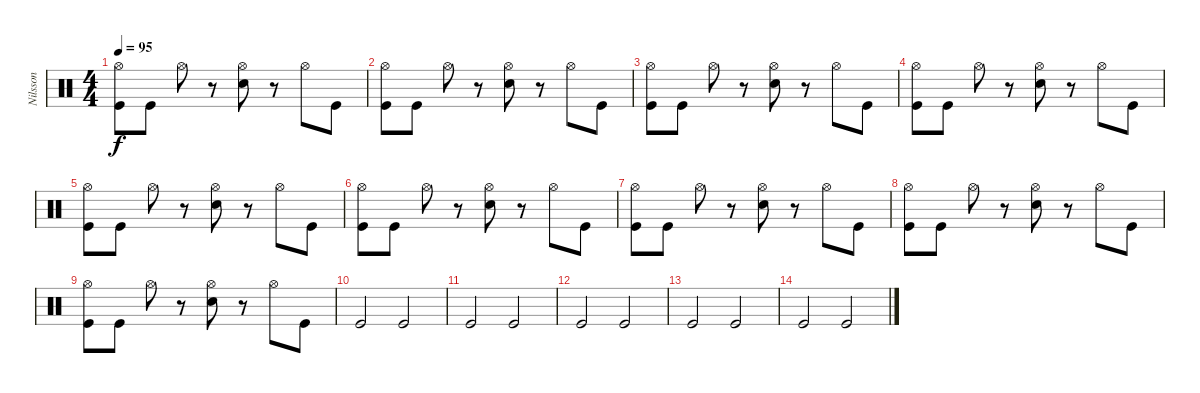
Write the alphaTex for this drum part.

\track ("Nilsson" "Nilsson") {instrument percussion}
\staff {score}
\articulation defaults
\ts (4 4)
\tempo 95
\clef neutral
\ks c
("Hi-Hat (open)" "Kick (hit)").8{dy f} "Kick (hit)".8 "Hi-Hat (open)".8 r.8 ("Hi-Hat (open)" "Electric Snare (hit)").8 r.8 "Hi-Hat (open)".8 "Kick (hit)".8 |
("Hi-Hat (open)" "Kick (hit)").8 "Kick (hit)".8 "Hi-Hat (open)".8 r.8 ("Hi-Hat (open)" "Electric Snare (hit)").8 r.8 "Hi-Hat (open)".8 "Kick (hit)".8 |
("Hi-Hat (open)" "Kick (hit)").8 "Kick (hit)".8 "Hi-Hat (open)".8 r.8 ("Hi-Hat (open)" "Electric Snare (hit)").8 r.8 "Hi-Hat (open)".8 "Kick (hit)".8 |
("Hi-Hat (open)" "Kick (hit)").8 "Kick (hit)".8 "Hi-Hat (open)".8 r.8 ("Hi-Hat (open)" "Electric Snare (hit)").8 r.8 "Hi-Hat (open)".8 "Kick (hit)".8 |
("Hi-Hat (open)" "Kick (hit)").8 "Kick (hit)".8 "Hi-Hat (open)".8 r.8 ("Hi-Hat (open)" "Electric Snare (hit)").8 r.8 "Hi-Hat (open)".8 "Kick (hit)".8 |
("Hi-Hat (open)" "Kick (hit)").8 "Kick (hit)".8 "Hi-Hat (open)".8 r.8 ("Hi-Hat (open)" "Electric Snare (hit)").8 r.8 "Hi-Hat (open)".8 "Kick (hit)".8 |
("Hi-Hat (open)" "Kick (hit)").8 "Kick (hit)".8 "Hi-Hat (open)".8 r.8 ("Hi-Hat (open)" "Electric Snare (hit)").8 r.8 "Hi-Hat (open)".8 "Kick (hit)".8 |
("Hi-Hat (open)" "Kick (hit)").8 "Kick (hit)".8 "Hi-Hat (open)".8 r.8 ("Hi-Hat (open)" "Electric Snare (hit)").8 r.8 "Hi-Hat (open)".8 "Kick (hit)".8 |
("Hi-Hat (open)" "Kick (hit)").8 "Kick (hit)".8 "Hi-Hat (open)".8 r.8 ("Hi-Hat (open)" "Electric Snare (hit)").8 r.8 "Hi-Hat (open)".8 "Kick (hit)".8 |
"Kick (hit)".2 "Kick (hit)".2 |
"Kick (hit)".2{volume 13} "Kick (hit)".2{volume 12} |
"Kick (hit)".2{volume 11} "Kick (hit)".2{volume 10} |
"Kick (hit)".2{volume 9} "Kick (hit)".2{volume 6} |
"Kick (hit)".2{volume 5} "Kick (hit)".2{volume 4}
